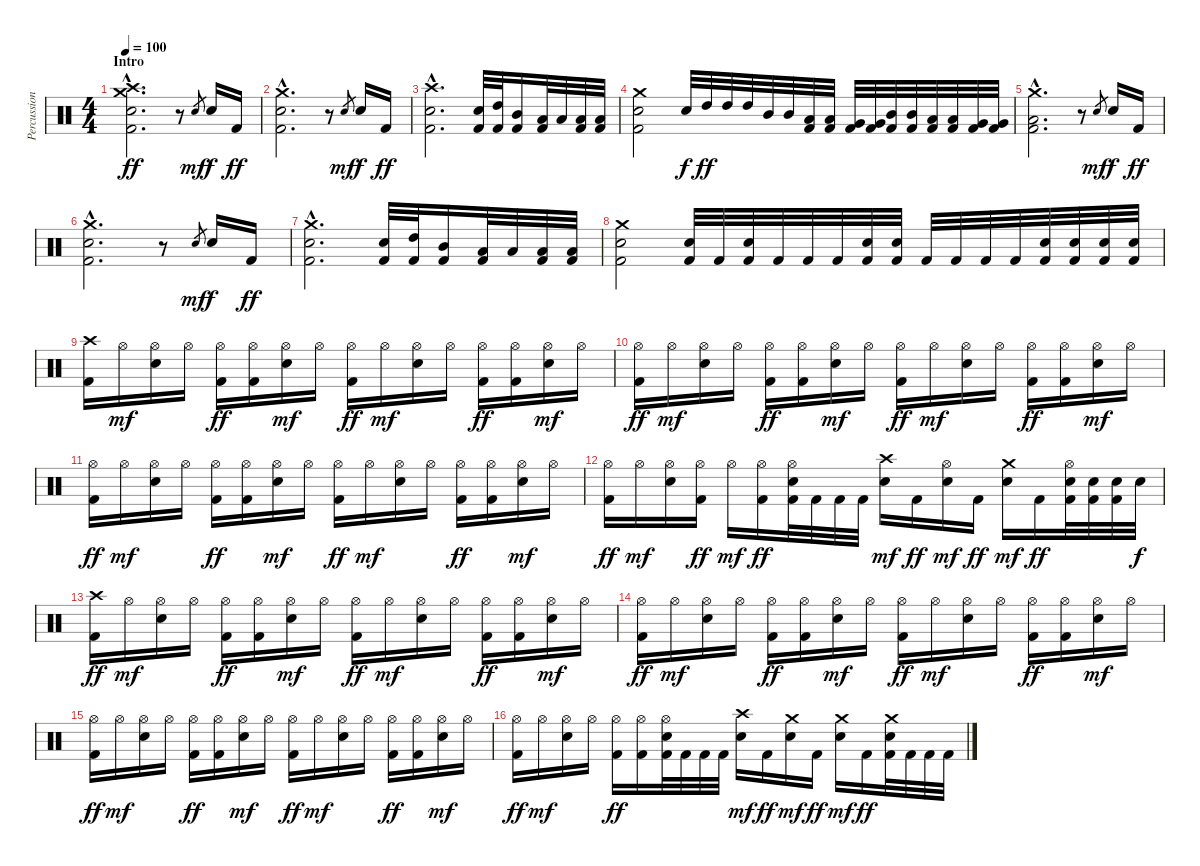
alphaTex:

\track ("Percussion" "Percussion") {instrument percussion}
\staff {score}
\articulation defaults
\ts (4 4)
\section ("" "Intro")
\tempo 100
\clef neutral
\ks c
("Crash high (hit)"{hac} "Crash medium (hit)"{hac} "Snare (hit) 2"{hac} "Kick (hit) 2"{hac}).2{d dy ff} r.8 "Snare (hit) 2".8{gr dy mf} "Snare (hit) 2".16{dy f} "Kick (hit) 2".16{dy ff} |
("Crash medium (hit)"{hac} "Snare (hit) 2"{hac} "Kick (hit) 2"{hac}).2{d} r.8 "Snare (hit) 2".8{gr dy mf} "Snare (hit) 2".16{dy f} "Kick (hit) 2".16{dy ff} |
("Crash high (hit)"{hac} "Snare (hit) 2"{hac} "Kick (hit) 2"{hac}).2{d} ("Snare (hit) 2" "Kick (hit) 2").32 ("High Tom (hit)" "Kick (hit) 2").32 ("Mid Tom (hit)" "Kick (hit) 2").16 ("Low Tom (hit)" "Kick (hit) 2").32 "Low Tom (hit)".32 ("Low Tom (hit)" "Kick (hit) 2").32 ("Low Tom (hit)" "Kick (hit) 2").32 |
("Crash medium (hit)" "Snare (hit) 2" "Kick (hit) 2").2 "Snare (hit) 2".32{dy f} "High Tom (hit)".32{dy ff} "High Tom (hit)".32 "High Tom (hit)".32 "Mid Tom (hit)".32 "Mid Tom (hit)".32 ("Low Tom (hit)" "Kick (hit) 2").32 ("Low Tom (hit)" "Kick (hit) 2").32 ("Very Low Tom (hit)" "Kick (hit) 2").32 ("Very Low Tom (hit)" "Kick (hit) 2").32 ("Mid Tom (hit)" "Kick (hit) 2").32 ("Mid Tom (hit)" "Kick (hit) 2").32 ("Low Tom (hit)" "Kick (hit) 2").32 ("Low Tom (hit)" "Kick (hit) 2").32 ("Very Low Tom (hit)" "Kick (hit) 2").32 ("Very Low Tom (hit)" "Kick (hit) 2").32 |
("Crash medium (hit)"{hac} "Low Floor Tom (hit)"{hac} "Kick (hit) 2"{hac}).2{d} r.8 "Snare (hit) 2".8{gr dy mf} "Snare (hit) 2".16{dy f} "Kick (hit) 2".16{dy ff} |
("Crash medium (hit)"{hac} "Snare (hit) 2"{hac} "Kick (hit) 2"{hac}).2{d} r.8 "Snare (hit) 2".8{gr dy mf} "Snare (hit) 2".16{dy f} "Kick (hit) 2".16{dy ff} |
("Crash medium (hit)"{hac} "Snare (hit) 2"{hac} "Kick (hit) 2"{hac}).2{d} ("Snare (hit) 2" "Kick (hit) 2").32 ("High Tom (hit)" "Kick (hit) 2").32 ("Mid Tom (hit)" "Kick (hit) 2").16 ("Low Tom (hit)" "Kick (hit) 2").32 "Low Tom (hit)".32 ("Low Tom (hit)" "Kick (hit) 2").32 ("Low Tom (hit)" "Kick (hit) 2").32 |
("Crash medium (hit)" "Snare (hit) 2" "Kick (hit) 2").2 ("Snare (hit) 2" "Kick (hit) 2").32 "Kick (hit) 2".32 ("Snare (hit) 2" "Kick (hit) 2").32 "Kick (hit) 2".32 "Kick (hit) 2".32 "Kick (hit) 2".32 ("Snare (hit) 2" "Kick (hit) 2").32 ("Snare (hit) 2" "Kick (hit) 2").32 "Kick (hit) 2".32 "Kick (hit) 2".32 "Kick (hit) 2".32 "Kick (hit) 2".32 ("Snare (hit) 2" "Kick (hit) 2").32 ("Snare (hit) 2" "Kick (hit) 2").32 ("Snare (hit) 2" "Kick (hit) 2").32 ("Snare (hit) 2" "Kick (hit) 2").32 |
\section ("" "")
("Crash high (hit)" "Kick (hit) 2").16 "Hi-Hat (open)".16{dy mf} ("Hi-Hat (open)" "Snare (hit) 2").16 "Hi-Hat (open)".16 ("Hi-Hat (open)" "Kick (hit) 2").16{dy ff} ("Hi-Hat (open)" "Kick (hit) 2").16 ("Hi-Hat (open)" "Snare (hit) 2").16{dy mf} "Hi-Hat (open)".16 ("Hi-Hat (open)" "Kick (hit) 2").16{dy ff} "Hi-Hat (open)".16{dy mf} ("Hi-Hat (open)" "Snare (hit) 2").16 "Hi-Hat (open)".16 ("Hi-Hat (open)" "Kick (hit) 2").16{dy ff} ("Hi-Hat (open)" "Kick (hit) 2").16 ("Hi-Hat (open)" "Snare (hit) 2").16{dy mf} "Hi-Hat (open)".16 |
("Hi-Hat (open)" "Kick (hit) 2").16{dy ff} "Hi-Hat (open)".16{dy mf} ("Hi-Hat (open)" "Snare (hit) 2").16 "Hi-Hat (open)".16 ("Hi-Hat (open)" "Kick (hit) 2").16{dy ff} ("Hi-Hat (open)" "Kick (hit) 2").16 ("Hi-Hat (open)" "Snare (hit) 2").16{dy mf} "Hi-Hat (open)".16 ("Hi-Hat (open)" "Kick (hit) 2").16{dy ff} "Hi-Hat (open)".16{dy mf} ("Hi-Hat (open)" "Snare (hit) 2").16 "Hi-Hat (open)".16 ("Hi-Hat (open)" "Kick (hit) 2").16{dy ff} ("Hi-Hat (open)" "Kick (hit) 2").16 ("Hi-Hat (open)" "Snare (hit) 2").16{dy mf} "Hi-Hat (open)".16 |
("Hi-Hat (open)" "Kick (hit) 2").16{dy ff} "Hi-Hat (open)".16{dy mf} ("Hi-Hat (open)" "Snare (hit) 2").16 "Hi-Hat (open)".16 ("Hi-Hat (open)" "Kick (hit) 2").16{dy ff} ("Hi-Hat (open)" "Kick (hit) 2").16 ("Hi-Hat (open)" "Snare (hit) 2").16{dy mf} "Hi-Hat (open)".16 ("Hi-Hat (open)" "Kick (hit) 2").16{dy ff} "Hi-Hat (open)".16{dy mf} ("Hi-Hat (open)" "Snare (hit) 2").16 "Hi-Hat (open)".16 ("Hi-Hat (open)" "Kick (hit) 2").16{dy ff} ("Hi-Hat (open)" "Kick (hit) 2").16 ("Hi-Hat (open)" "Snare (hit) 2").16{dy mf} "Hi-Hat (open)".16 |
("Hi-Hat (open)" "Kick (hit) 2").16{dy ff} "Hi-Hat (open)".16{dy mf} ("Hi-Hat (open)" "Snare (hit) 2").16 ("Hi-Hat (open)" "Kick (hit) 2").16{dy ff} "Hi-Hat (open)".16{dy mf} ("Hi-Hat (open)" "Kick (hit) 2").16{dy ff} ("Hi-Hat (open)" "Snare (hit) 2" "Kick (hit) 2").32 "Kick (hit) 2".32 "Kick (hit) 2".32 "Kick (hit) 2".32 ("Crash high (hit)" "Snare (hit) 2").16{dy mf} "Kick (hit) 2".16{dy ff} ("Hi-Hat (open)" "Snare (hit) 2").16{dy mf} "Kick (hit) 2".16{dy ff} ("Crash medium (hit)" "Snare (hit) 2").16{dy mf} "Kick (hit) 2".16{dy ff} ("Hi-Hat (open)" "Snare (hit) 2" "Kick (hit) 2").32 ("Snare (hit) 2" "Kick (hit) 2").32 ("Snare (hit) 2" "Kick (hit) 2").32 "Snare (hit) 2".32{dy f} |
("Crash high (hit)" "Kick (hit) 2").16{dy ff} "Hi-Hat (open)".16{dy mf} ("Hi-Hat (open)" "Snare (hit) 2").16 "Hi-Hat (open)".16 ("Hi-Hat (open)" "Kick (hit) 2").16{dy ff} ("Hi-Hat (open)" "Kick (hit) 2").16 ("Hi-Hat (open)" "Snare (hit) 2").16{dy mf} "Hi-Hat (open)".16 ("Hi-Hat (open)" "Kick (hit) 2").16{dy ff} "Hi-Hat (open)".16{dy mf} ("Hi-Hat (open)" "Snare (hit) 2").16 "Hi-Hat (open)".16 ("Hi-Hat (open)" "Kick (hit) 2").16{dy ff} ("Hi-Hat (open)" "Kick (hit) 2").16 ("Hi-Hat (open)" "Snare (hit) 2").16{dy mf} "Hi-Hat (open)".16 |
("Hi-Hat (open)" "Kick (hit) 2").16{dy ff} "Hi-Hat (open)".16{dy mf} ("Hi-Hat (open)" "Snare (hit) 2").16 "Hi-Hat (open)".16 ("Hi-Hat (open)" "Kick (hit) 2").16{dy ff} ("Hi-Hat (open)" "Kick (hit) 2").16 ("Hi-Hat (open)" "Snare (hit) 2").16{dy mf} "Hi-Hat (open)".16 ("Hi-Hat (open)" "Kick (hit) 2").16{dy ff} "Hi-Hat (open)".16{dy mf} ("Hi-Hat (open)" "Snare (hit) 2").16 "Hi-Hat (open)".16 ("Hi-Hat (open)" "Kick (hit) 2").16{dy ff} ("Hi-Hat (open)" "Kick (hit) 2").16 ("Hi-Hat (open)" "Snare (hit) 2").16{dy mf} "Hi-Hat (open)".16 |
("Hi-Hat (open)" "Kick (hit) 2").16{dy ff} "Hi-Hat (open)".16{dy mf} ("Hi-Hat (open)" "Snare (hit) 2").16 "Hi-Hat (open)".16 ("Hi-Hat (open)" "Kick (hit) 2").16{dy ff} ("Hi-Hat (open)" "Kick (hit) 2").16 ("Hi-Hat (open)" "Snare (hit) 2").16{dy mf} "Hi-Hat (open)".16 ("Hi-Hat (open)" "Kick (hit) 2").16{dy ff} "Hi-Hat (open)".16{dy mf} ("Hi-Hat (open)" "Snare (hit) 2").16 "Hi-Hat (open)".16 ("Hi-Hat (open)" "Kick (hit) 2").16{dy ff} ("Hi-Hat (open)" "Kick (hit) 2").16 ("Hi-Hat (open)" "Snare (hit) 2").16{dy mf} "Hi-Hat (open)".16 |
("Hi-Hat (open)" "Kick (hit) 2").16{dy ff} "Hi-Hat (open)".16{dy mf} ("Hi-Hat (open)" "Snare (hit) 2").16 "Hi-Hat (open)".16 ("Hi-Hat (open)" "Kick (hit) 2").16{dy ff} ("Hi-Hat (open)" "Kick (hit) 2").16 ("Hi-Hat (open)" "Snare (hit) 2" "Kick (hit) 2").32 "Kick (hit) 2".32 "Kick (hit) 2".32 "Kick (hit) 2".32 ("Crash high (hit)" "Snare (hit) 2").16{dy mf} "Kick (hit) 2".16{dy ff} ("Crash medium (hit)" "Snare (hit) 2").16{dy mf} "Kick (hit) 2".16{dy ff} ("Crash medium (hit)" "Snare (hit) 2").16{dy mf} "Kick (hit) 2".16{dy ff} ("Crash medium (hit)" "Snare (hit) 2" "Kick (hit) 2").32 "Kick (hit) 2".32 "Kick (hit) 2".32 "Kick (hit) 2".32
